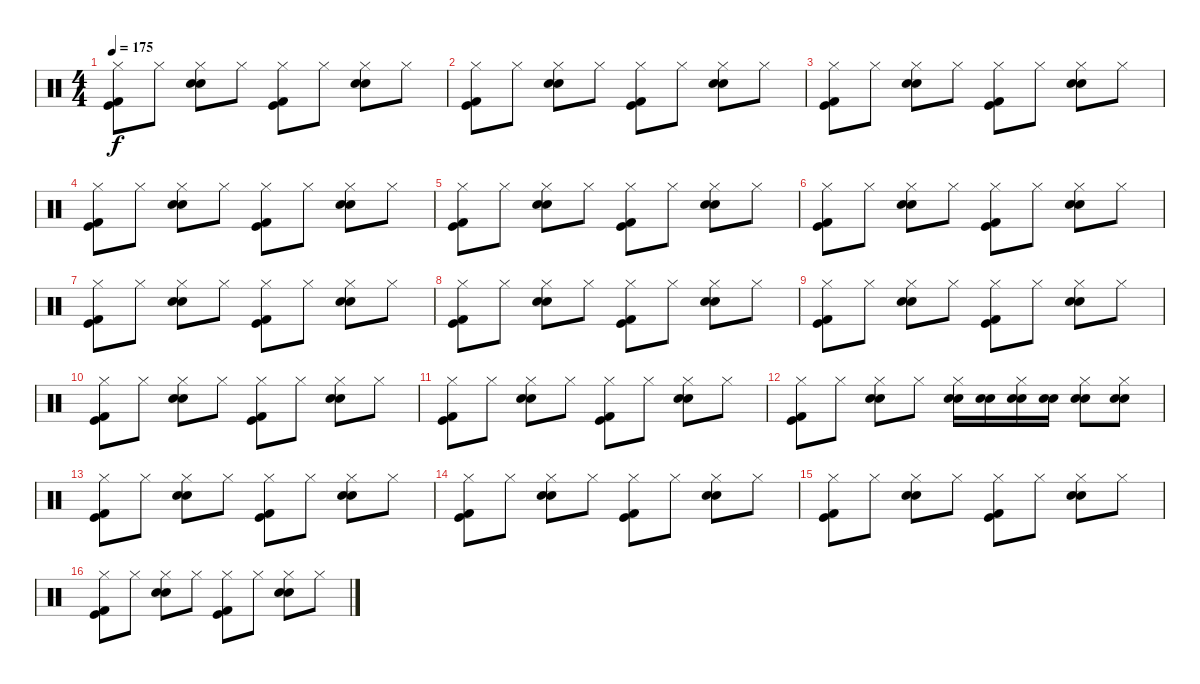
\track "" {instrument percussion}
\staff {score}
\articulation defaults
\ts (4 4)
\tempo 175
\clef neutral
\ks c
("Kick (hit) 2" "Kick (hit)" "Hi-Hat (closed)").8{dy f} "Hi-Hat (closed)".8 ("Electric Snare (hit)" "Snare (hit) 2" "Hi-Hat (closed)").8 "Hi-Hat (closed)".8 ("Hi-Hat (closed)" "Kick (hit)" "Kick (hit) 2").8 "Hi-Hat (closed)".8 ("Electric Snare (hit)" "Snare (hit) 2" "Hi-Hat (closed)").8 "Hi-Hat (closed)".8 |
("Hi-Hat (closed)" "Kick (hit)" "Kick (hit) 2").8 "Hi-Hat (closed)".8 ("Electric Snare (hit)" "Snare (hit) 2" "Hi-Hat (closed)").8 "Hi-Hat (closed)".8 ("Hi-Hat (closed)" "Kick (hit)" "Kick (hit) 2").8 "Hi-Hat (closed)".8 ("Electric Snare (hit)" "Snare (hit) 2" "Hi-Hat (closed)").8 "Hi-Hat (closed)".8 |
("Kick (hit) 2" "Kick (hit)" "Hi-Hat (closed)").8 "Hi-Hat (closed)".8 ("Electric Snare (hit)" "Snare (hit) 2" "Hi-Hat (closed)").8 "Hi-Hat (closed)".8 ("Hi-Hat (closed)" "Kick (hit)" "Kick (hit) 2").8 "Hi-Hat (closed)".8 ("Electric Snare (hit)" "Snare (hit) 2" "Hi-Hat (closed)").8 "Hi-Hat (closed)".8 |
("Hi-Hat (closed)" "Kick (hit)" "Kick (hit) 2").8 "Hi-Hat (closed)".8 ("Electric Snare (hit)" "Snare (hit) 2" "Hi-Hat (closed)").8 "Hi-Hat (closed)".8 ("Hi-Hat (closed)" "Kick (hit)" "Kick (hit) 2").8 "Hi-Hat (closed)".8 ("Electric Snare (hit)" "Snare (hit) 2" "Hi-Hat (closed)").8 "Hi-Hat (closed)".8 |
("Kick (hit) 2" "Kick (hit)" "Hi-Hat (closed)").8 "Hi-Hat (closed)".8 ("Electric Snare (hit)" "Snare (hit) 2" "Hi-Hat (closed)").8 "Hi-Hat (closed)".8 ("Hi-Hat (closed)" "Kick (hit)" "Kick (hit) 2").8 "Hi-Hat (closed)".8 ("Electric Snare (hit)" "Snare (hit) 2" "Hi-Hat (closed)").8 "Hi-Hat (closed)".8 |
("Hi-Hat (closed)" "Kick (hit)" "Kick (hit) 2").8 "Hi-Hat (closed)".8 ("Electric Snare (hit)" "Snare (hit) 2" "Hi-Hat (closed)").8 "Hi-Hat (closed)".8 ("Hi-Hat (closed)" "Kick (hit)" "Kick (hit) 2").8 "Hi-Hat (closed)".8 ("Electric Snare (hit)" "Snare (hit) 2" "Hi-Hat (closed)").8 "Hi-Hat (closed)".8 |
("Kick (hit) 2" "Kick (hit)" "Hi-Hat (closed)").8 "Hi-Hat (closed)".8 ("Electric Snare (hit)" "Snare (hit) 2" "Hi-Hat (closed)").8 "Hi-Hat (closed)".8 ("Hi-Hat (closed)" "Kick (hit)" "Kick (hit) 2").8 "Hi-Hat (closed)".8 ("Electric Snare (hit)" "Snare (hit) 2" "Hi-Hat (closed)").8 "Hi-Hat (closed)".8 |
("Hi-Hat (closed)" "Kick (hit)" "Kick (hit) 2").8 "Hi-Hat (closed)".8 ("Electric Snare (hit)" "Snare (hit) 2" "Hi-Hat (closed)").8 "Hi-Hat (closed)".8 ("Hi-Hat (closed)" "Kick (hit)" "Kick (hit) 2").8 "Hi-Hat (closed)".8 ("Electric Snare (hit)" "Snare (hit) 2" "Hi-Hat (closed)").8 "Hi-Hat (closed)".8 |
("Hi-Hat (closed)" "Kick (hit)" "Kick (hit) 2").8 "Hi-Hat (closed)".8 ("Electric Snare (hit)" "Snare (hit) 2" "Hi-Hat (closed)").8 "Hi-Hat (closed)".8 ("Hi-Hat (closed)" "Kick (hit)" "Kick (hit) 2").8 "Hi-Hat (closed)".8 ("Electric Snare (hit)" "Snare (hit) 2" "Hi-Hat (closed)").8 "Hi-Hat (closed)".8 |
("Hi-Hat (closed)" "Kick (hit)" "Kick (hit) 2").8 "Hi-Hat (closed)".8 ("Electric Snare (hit)" "Snare (hit) 2" "Hi-Hat (closed)").8 "Hi-Hat (closed)".8 ("Hi-Hat (closed)" "Kick (hit)" "Kick (hit) 2").8 "Hi-Hat (closed)".8 ("Electric Snare (hit)" "Snare (hit) 2" "Hi-Hat (closed)").8 "Hi-Hat (closed)".8 |
("Hi-Hat (closed)" "Kick (hit)" "Kick (hit) 2").8 "Hi-Hat (closed)".8 ("Electric Snare (hit)" "Snare (hit) 2" "Hi-Hat (closed)").8 "Hi-Hat (closed)".8 ("Hi-Hat (closed)" "Kick (hit)" "Kick (hit) 2").8 "Hi-Hat (closed)".8 ("Electric Snare (hit)" "Snare (hit) 2" "Hi-Hat (closed)").8 "Hi-Hat (closed)".8 |
("Hi-Hat (closed)" "Kick (hit)" "Kick (hit) 2").8 "Hi-Hat (closed)".8 ("Electric Snare (hit)" "Snare (hit) 2" "Hi-Hat (closed)").8 "Hi-Hat (closed)".8 ("Hi-Hat (closed)" "Snare (hit) 2" "Electric Snare (hit)").16 ("Snare (hit) 2" "Electric Snare (hit)").16 ("Snare (hit) 2" "Electric Snare (hit)" "Hi-Hat (closed)").16 ("Snare (hit) 2" "Electric Snare (hit)").16 ("Hi-Hat (closed)" "Snare (hit) 2" "Electric Snare (hit)").8 ("Electric Snare (hit)" "Snare (hit) 2" "Hi-Hat (closed)").8 |
("Kick (hit) 2" "Kick (hit)" "Hi-Hat (closed)").8 "Hi-Hat (closed)".8 ("Electric Snare (hit)" "Snare (hit) 2" "Hi-Hat (closed)").8 "Hi-Hat (closed)".8 ("Hi-Hat (closed)" "Kick (hit)" "Kick (hit) 2").8 "Hi-Hat (closed)".8 ("Electric Snare (hit)" "Snare (hit) 2" "Hi-Hat (closed)").8 "Hi-Hat (closed)".8 |
("Hi-Hat (closed)" "Kick (hit)" "Kick (hit) 2").8 "Hi-Hat (closed)".8 ("Electric Snare (hit)" "Snare (hit) 2" "Hi-Hat (closed)").8 "Hi-Hat (closed)".8 ("Hi-Hat (closed)" "Kick (hit)" "Kick (hit) 2").8 "Hi-Hat (closed)".8 ("Electric Snare (hit)" "Snare (hit) 2" "Hi-Hat (closed)").8 "Hi-Hat (closed)".8 |
("Hi-Hat (closed)" "Kick (hit)" "Kick (hit) 2").8 "Hi-Hat (closed)".8 ("Electric Snare (hit)" "Snare (hit) 2" "Hi-Hat (closed)").8 "Hi-Hat (closed)".8 ("Hi-Hat (closed)" "Kick (hit)" "Kick (hit) 2").8 "Hi-Hat (closed)".8 ("Electric Snare (hit)" "Snare (hit) 2" "Hi-Hat (closed)").8 "Hi-Hat (closed)".8 |
("Hi-Hat (closed)" "Kick (hit)" "Kick (hit) 2").8 "Hi-Hat (closed)".8 ("Electric Snare (hit)" "Snare (hit) 2" "Hi-Hat (closed)").8 "Hi-Hat (closed)".8 ("Hi-Hat (closed)" "Kick (hit)" "Kick (hit) 2").8 "Hi-Hat (closed)".8 ("Electric Snare (hit)" "Snare (hit) 2" "Hi-Hat (closed)").8 "Hi-Hat (closed)".8
